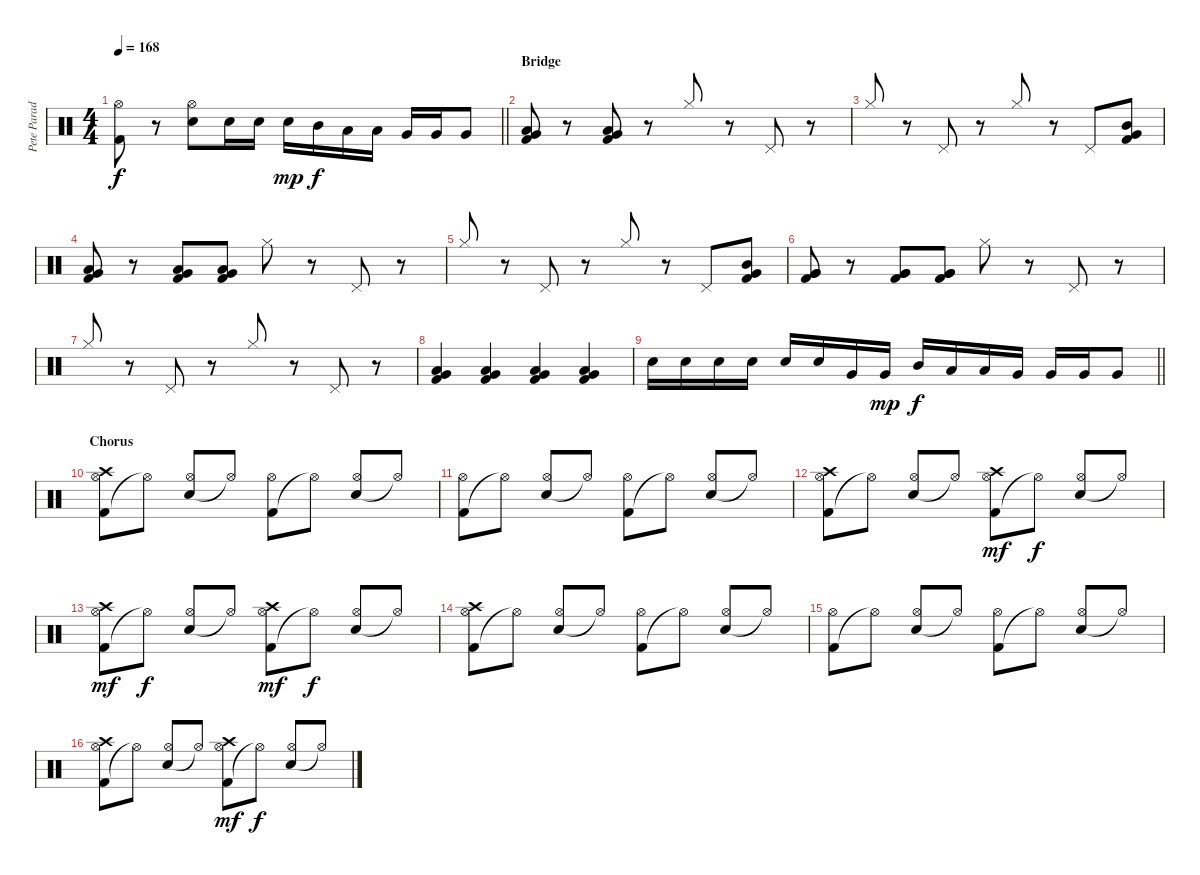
\track ("Pete Parada" "Pete Parad") {instrument percussion}
\staff {score}
\articulation defaults
\ts (4 4)
\tempo 168
\clef neutral
\barLineRight lightlight
\ks c
("Kick (hit) 2" "Hi-Hat (open)").8{dy f} r.8 ("Electric Snare (hit)" "Hi-Hat (open)").8 "Electric Snare (hit)".16 "Electric Snare (hit)".16 "Electric Snare (hit)".16{dy mp} "Mid Tom (hit)".16{dy f} "Low Tom (hit)".16 "Low Tom (hit)".16 "Very Low Tom (hit)".16 "Very Low Tom (hit)".16 "Very Low Tom (hit)".8 |
\section ("" "Bridge")
("Very Low Tom (hit)" "Kick (hit) 2" "Low Tom (hit)").8{beam Up} r.8 ("Very Low Tom (hit)" "Kick (hit) 2" "Low Tom (hit)").8{beam Up} r.8 "Hi-Hat (closed)".8{beam Up} r.8 "Pedal Hi-Hat (hit)".8{beam Up} r.8 |
"Hi-Hat (closed)".8{beam Up} r.8 "Pedal Hi-Hat (hit)".8{beam Up} r.8 "Hi-Hat (closed)".8{beam Up} r.8 "Pedal Hi-Hat (hit)".8 ("Very Low Tom (hit)" "Kick (hit) 2" "Mid Tom (hit)").8 |
("Very Low Tom (hit)" "Kick (hit) 2" "Low Tom (hit)").8 r.8 ("Very Low Tom (hit)" "Kick (hit) 2" "Low Tom (hit)").8 ("Very Low Tom (hit)" "Kick (hit) 2" "Low Tom (hit)").8 "Hi-Hat (closed)".8 r.8 "Pedal Hi-Hat (hit)".8 r.8 |
"Hi-Hat (closed)".8{beam Up} r.8 "Pedal Hi-Hat (hit)".8{beam Up} r.8 "Hi-Hat (closed)".8{beam Up} r.8 "Pedal Hi-Hat (hit)".8 ("Very Low Tom (hit)" "Kick (hit) 2" "Mid Tom (hit)").8 |
("Very Low Tom (hit)" "Kick (hit) 2" "Very Low Tom (hit)").8 r.8 ("Very Low Tom (hit)" "Kick (hit) 2" "Very Low Tom (hit)").8 ("Very Low Tom (hit)" "Kick (hit) 2" "Very Low Tom (hit)").8 "Hi-Hat (closed)".8 r.8 "Pedal Hi-Hat (hit)".8 r.8 |
"Hi-Hat (closed)".8{beam Up} r.8 "Pedal Hi-Hat (hit)".8{beam Up} r.8 "Hi-Hat (closed)".8{beam Up} r.8 "Pedal Hi-Hat (hit)".8 r.8 |
("Very Low Tom (hit)" "Kick (hit) 2" "Low Tom (hit)").4 ("Very Low Tom (hit)" "Kick (hit) 2" "Low Tom (hit)").4 ("Very Low Tom (hit)" "Kick (hit) 2" "Low Tom (hit)").4 ("Very Low Tom (hit)" "Kick (hit) 2" "Low Tom (hit)").4 |
\barLineRight lightlight "Electric Snare (hit)".16 "Electric Snare (hit)".16 "Electric Snare (hit)".16 "Electric Snare (hit)".16 "Electric Snare (hit)".16 "Electric Snare (hit)".16 "Very Low Tom (hit)".16 "Very Low Tom (hit)".16{dy mp} "Mid Tom (hit)".16{dy f} "Low Tom (hit)".16 "Low Tom (hit)".16 "Very Low Tom (hit)".16 "Very Low Tom (hit)".16 "Very Low Tom (hit)".16 "Very Low Tom (hit)".8
|
\section ("" "Chorus")
("Kick (hit) 2" "Hi-Hat (open)" "Crash high (hit)").8 "Hi-Hat (open)"{t}.8 ("Electric Snare (hit)" "Hi-Hat (open)").8{beam Up} "Hi-Hat (open)"{t}.8{beam Up} ("Kick (hit) 2" "Hi-Hat (open)").8 "Hi-Hat (open)"{t}.8 ("Electric Snare (hit)" "Hi-Hat (open)").8{beam Up} "Hi-Hat (open)"{t}.8{beam Up} |
("Kick (hit) 2" "Hi-Hat (open)").8 "Hi-Hat (open)"{t}.8 ("Electric Snare (hit)" "Hi-Hat (open)").8{beam Up} "Hi-Hat (open)"{t}.8{beam Up} ("Kick (hit) 2" "Hi-Hat (open)").8 "Hi-Hat (open)"{t}.8 ("Electric Snare (hit)" "Hi-Hat (open)").8{beam Up} "Hi-Hat (open)"{t}.8{beam Up} |
("Kick (hit) 2" "Hi-Hat (open)" "Crash high (hit)").8 "Hi-Hat (open)"{t}.8 ("Electric Snare (hit)" "Hi-Hat (open)").8{beam Up} "Hi-Hat (open)"{t}.8{beam Up} ("Kick (hit) 2" "Hi-Hat (open)" "Crash high (hit)").8{dy mf} "Hi-Hat (open)"{t}.8{dy f} ("Electric Snare (hit)" "Hi-Hat (open)").8{beam Up} "Hi-Hat (open)"{t}.8{beam Up} |
("Kick (hit) 2" "Hi-Hat (open)" "Crash high (hit)").8{dy mf} "Hi-Hat (open)"{t}.8{dy f} ("Electric Snare (hit)" "Hi-Hat (open)").8{beam Up} "Hi-Hat (open)"{t}.8{beam Up} ("Kick (hit) 2" "Hi-Hat (open)" "Crash high (hit)").8{dy mf} "Hi-Hat (open)"{t}.8{dy f} ("Electric Snare (hit)" "Hi-Hat (open)").8{beam Up} "Hi-Hat (open)"{t}.8{beam Up} |
("Kick (hit) 2" "Hi-Hat (open)" "Crash high (hit)").8 "Hi-Hat (open)"{t}.8 ("Electric Snare (hit)" "Hi-Hat (open)").8{beam Up} "Hi-Hat (open)"{t}.8{beam Up} ("Kick (hit) 2" "Hi-Hat (open)").8 "Hi-Hat (open)"{t}.8 ("Electric Snare (hit)" "Hi-Hat (open)").8{beam Up} "Hi-Hat (open)"{t}.8{beam Up} |
("Kick (hit) 2" "Hi-Hat (open)").8 "Hi-Hat (open)"{t}.8 ("Electric Snare (hit)" "Hi-Hat (open)").8{beam Up} "Hi-Hat (open)"{t}.8{beam Up} ("Kick (hit) 2" "Hi-Hat (open)").8 "Hi-Hat (open)"{t}.8 ("Electric Snare (hit)" "Hi-Hat (open)").8{beam Up} "Hi-Hat (open)"{t}.8{beam Up} |
("Kick (hit) 2" "Hi-Hat (open)" "Crash high (hit)").8 "Hi-Hat (open)"{t}.8 ("Electric Snare (hit)" "Hi-Hat (open)").8{beam Up} "Hi-Hat (open)"{t}.8{beam Up} ("Kick (hit) 2" "Hi-Hat (open)" "Crash high (hit)").8{dy mf} "Hi-Hat (open)"{t}.8{dy f} ("Electric Snare (hit)" "Hi-Hat (open)").8{beam Up} "Hi-Hat (open)"{t}.8{beam Up}
